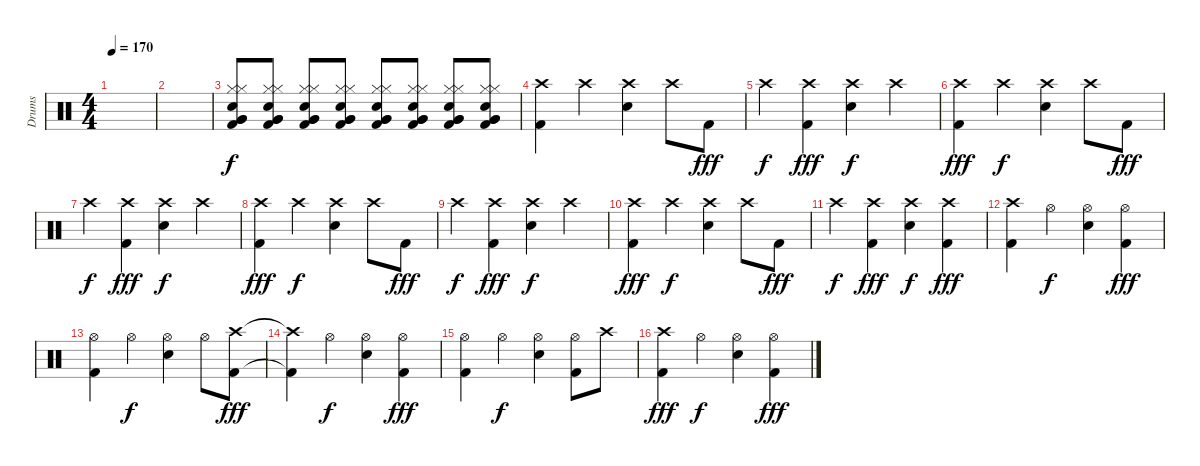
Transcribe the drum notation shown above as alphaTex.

\track ("Drums" "Drums") {instrument percussion}
\staff {score}
\articulation defaults
\ts (4 4)
\tempo 170
\clef neutral
\ks c
|
|
("Very Low Tom (hit)" "Very Low Tom (hit)" "Hi-Hat (closed)" "Hi-Hat (closed)" "Snare (hit) 2" "Kick (hit) 2").8 ("Very Low Tom (hit)" "Very Low Tom (hit)" "Hi-Hat (closed)" "Hi-Hat (closed)" "Snare (hit) 2" "Kick (hit) 2").8 ("Very Low Tom (hit)" "Very Low Tom (hit)" "Hi-Hat (closed)" "Hi-Hat (closed)" "Snare (hit) 2" "Kick (hit) 2").8 ("Very Low Tom (hit)" "Very Low Tom (hit)" "Hi-Hat (closed)" "Hi-Hat (closed)" "Snare (hit) 2" "Kick (hit) 2").8 ("Very Low Tom (hit)" "Very Low Tom (hit)" "Hi-Hat (closed)" "Hi-Hat (closed)" "Snare (hit) 2" "Kick (hit) 2").8 ("Very Low Tom (hit)" "Very Low Tom (hit)" "Hi-Hat (closed)" "Hi-Hat (closed)" "Snare (hit) 2" "Kick (hit) 2").8 ("Very Low Tom (hit)" "Very Low Tom (hit)" "Hi-Hat (closed)" "Hi-Hat (closed)" "Snare (hit) 2" "Kick (hit) 2").8 ("Very Low Tom (hit)" "Very Low Tom (hit)" "Hi-Hat (closed)" "Hi-Hat (closed)" "Snare (hit) 2" "Kick (hit) 2").8 |
("Crash high (hit)" "Kick (hit) 2").4 "Crash high (hit)".4{dy f} ("Crash high (hit)" "Electric Snare (hit)").4 "Crash high (hit)".8 "Kick (hit) 2".8{dy fff} |
"Crash high (hit)".4{dy f} ("Crash high (hit)" "Kick (hit) 2").4{dy fff} ("Crash high (hit)" "Electric Snare (hit)").4{dy f} "Crash high (hit)".4 |
("Crash high (hit)" "Kick (hit) 2").4{dy fff} "Crash high (hit)".4{dy f} ("Crash high (hit)" "Electric Snare (hit)").4 "Crash high (hit)".8 "Kick (hit) 2".8{dy fff} |
"Crash high (hit)".4{dy f} ("Crash high (hit)" "Kick (hit) 2").4{dy fff} ("Crash high (hit)" "Electric Snare (hit)").4{dy f} "Crash high (hit)".4 |
("Crash high (hit)" "Kick (hit) 2").4{dy fff} "Crash high (hit)".4{dy f} ("Crash high (hit)" "Electric Snare (hit)").4 "Crash high (hit)".8 "Kick (hit) 2".8{dy fff} |
"Crash high (hit)".4{dy f} ("Crash high (hit)" "Kick (hit) 2").4{dy fff} ("Crash high (hit)" "Electric Snare (hit)").4{dy f} "Crash high (hit)".4 |
("Crash high (hit)" "Kick (hit) 2").4{dy fff} "Crash high (hit)".4{dy f} ("Crash high (hit)" "Electric Snare (hit)").4 "Crash high (hit)".8 "Kick (hit) 2".8{dy fff} |
"Crash high (hit)".4{dy f} ("Crash high (hit)" "Kick (hit) 2").4{dy fff} ("Crash high (hit)" "Electric Snare (hit)").4{dy f} ("Crash high (hit)" "Kick (hit) 2").4{dy fff} |
("Crash high (hit)" "Kick (hit) 2").4 "Hi-Hat (open)".4{dy f} ("Hi-Hat (open)" "Electric Snare (hit)").4 ("Hi-Hat (open)" "Kick (hit) 2").4{dy fff} |
("Hi-Hat (open)" "Kick (hit) 2").4 "Hi-Hat (open)".4{dy f} ("Hi-Hat (open)" "Electric Snare (hit)").4 "Hi-Hat (open)".8 ("Crash high (hit)" "Kick (hit) 2").8{dy fff} |
("Crash high (hit)"{t} "Kick (hit) 2"{t}).4 "Hi-Hat (open)".4{dy f} ("Hi-Hat (open)" "Electric Snare (hit)").4 ("Hi-Hat (open)" "Kick (hit) 2").4{dy fff} |
("Hi-Hat (open)" "Kick (hit) 2").4 "Hi-Hat (open)".4{dy f} ("Hi-Hat (open)" "Electric Snare (hit)").4 ("Hi-Hat (open)" "Kick (hit) 2").8 "Crash high (hit)".8 |
("Crash high (hit)" "Kick (hit) 2").4{dy fff} "Hi-Hat (open)".4{dy f} ("Hi-Hat (open)" "Electric Snare (hit)").4 ("Hi-Hat (open)" "Kick (hit) 2").4{dy fff}
